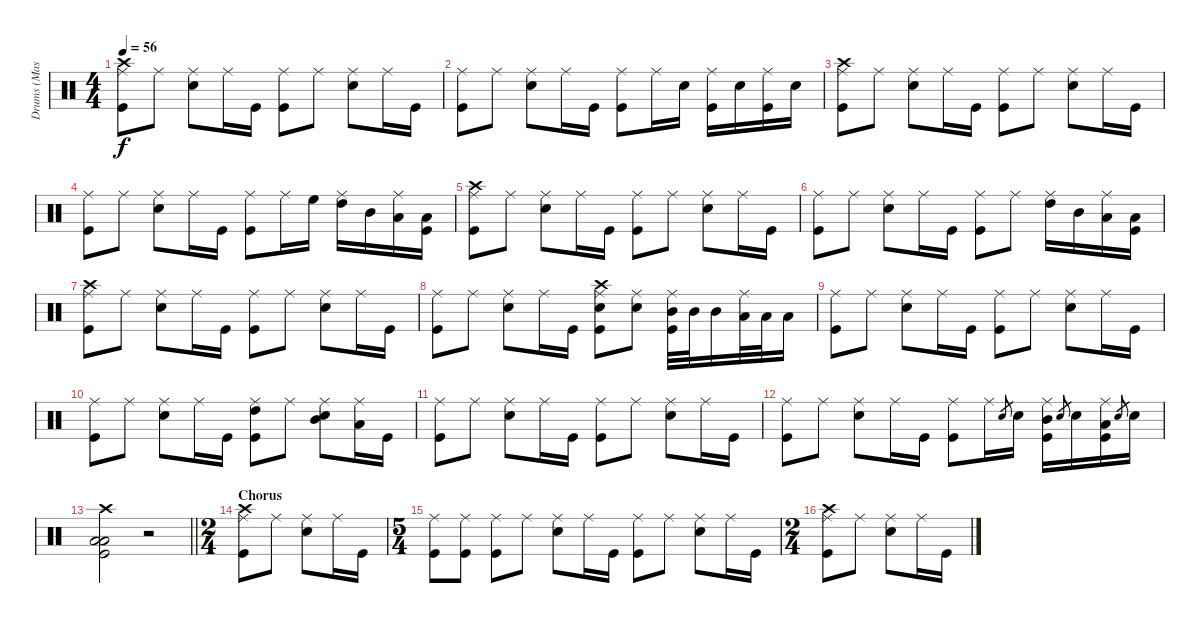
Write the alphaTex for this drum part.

\track ("Drums (Mason)" "Drums (Mas") {instrument percussion}
\staff {score}
\articulation defaults
\ts (4 4)
\tempo 56
\clef neutral
\ks c
("Ride (middle)" "Crash high (hit)" "Kick (hit)").8{dy f} "Ride (middle)".8 ("Ride (middle)" "Snare (hit) 2").8 "Ride (middle)".16 "Kick (hit)".16 ("Ride (middle)" "Kick (hit)").8 "Ride (middle)".8 ("Ride (middle)" "Snare (hit) 2").8 "Ride (middle)".16 "Kick (hit)".16 |
("Ride (middle)" "Kick (hit)").8 "Ride (middle)".8 ("Ride (middle)" "Snare (hit) 2").8 "Ride (middle)".16 "Kick (hit)".16 ("Ride (middle)" "Kick (hit)").8 "Ride (middle)".16 "Snare (hit) 2".16 ("Ride (middle)" "Kick (hit)").16 "Snare (hit) 2".16 ("Ride (middle)" "Kick (hit)").16 "Snare (hit) 2".16 |
("Ride (middle)" "Crash high (hit)" "Kick (hit)").8 "Ride (middle)".8 ("Ride (middle)" "Snare (hit) 2").8 "Ride (middle)".16 "Kick (hit)".16 ("Ride (middle)" "Kick (hit)").8 "Ride (middle)".8 ("Ride (middle)" "Snare (hit) 2").8 "Ride (middle)".16 "Kick (hit)".16 |
("Ride (middle)" "Kick (hit)").8 "Ride (middle)".8 ("Ride (middle)" "Snare (hit) 2").8 "Ride (middle)".16 "Kick (hit)".16 ("Ride (middle)" "Kick (hit)").8 "Ride (middle)".16 "High Floor Tom (hit)".16 ("Ride (middle)" "High Tom (hit)").16 "Mid Tom (hit)".16 ("Ride (middle)" "Low Tom (hit)").16 ("Low Floor Tom (hit)" "Kick (hit)").16 |
("Ride (middle)" "Crash high (hit)" "Kick (hit)").8 "Ride (middle)".8 ("Ride (middle)" "Snare (hit) 2").8 "Ride (middle)".16 "Kick (hit)".16 ("Ride (middle)" "Kick (hit)").8 "Ride (middle)".8 ("Ride (middle)" "Snare (hit) 2").8 "Ride (middle)".16 "Kick (hit)".16 |
("Ride (middle)" "Kick (hit)").8 "Ride (middle)".8 ("Ride (middle)" "Snare (hit) 2").8 "Ride (middle)".16 "Kick (hit)".16 ("Ride (middle)" "Kick (hit)").8 "Ride (middle)".8 ("Ride (middle)" "High Tom (hit)").16 "Mid Tom (hit)".16 ("Ride (middle)" "Low Tom (hit)").16 ("Low Floor Tom (hit)" "Kick (hit)").16 |
("Ride (middle)" "Crash high (hit)" "Kick (hit)").8 "Ride (middle)".8 ("Ride (middle)" "Snare (hit) 2").8 "Ride (middle)".16 "Kick (hit)".16 ("Ride (middle)" "Kick (hit)").8 "Ride (middle)".8 ("Ride (middle)" "Snare (hit) 2").8 "Ride (middle)".16 "Kick (hit)".16 |
("Ride (middle)" "Kick (hit)").8 "Ride (middle)".8 ("Ride (middle)" "Snare (hit) 2").8 "Ride (middle)".16 "Kick (hit)".16 ("Ride (middle)" "Crash high (hit)" "Snare (hit) 2" "Kick (hit)").8 ("Ride (middle)" "Snare (hit) 2").8 ("Ride (middle)" "Mid Tom (hit)" "Kick (hit)").32 "Mid Tom (hit)".32 "Mid Tom (hit)".16 ("Ride (middle)" "Low Tom (hit)").32 "Low Tom (hit)".32 "Low Tom (hit)".16 |
("Ride (middle)" "Kick (hit)").8 "Ride (middle)".8 ("Ride (middle)" "Snare (hit) 2").8 "Ride (middle)".16 "Kick (hit)".16 ("Ride (middle)" "Kick (hit)").8 "Ride (middle)".8 ("Ride (middle)" "Snare (hit) 2").8 "Ride (middle)".16 "Kick (hit)".16 |
("Ride (middle)" "Kick (hit)").8 "Ride (middle)".8 ("Ride (middle)" "Snare (hit) 2").8 "Ride (middle)".16 "Kick (hit)".16 ("Ride (middle)" "High Tom (hit)" "Kick (hit)").8 "Ride (middle)".8 ("Ride (middle)" "Mid Tom (hit)" "Snare (hit) 2").8 ("Ride (middle)" "Low Tom (hit)").16 "Kick (hit)".16 |
("Ride (middle)" "Kick (hit)").8 "Ride (middle)".8 ("Ride (middle)" "Snare (hit) 2").8 "Ride (middle)".16 "Kick (hit)".16 ("Ride (middle)" "Kick (hit)").8 "Ride (middle)".8 ("Ride (middle)" "Snare (hit) 2").8 "Ride (middle)".16 "Kick (hit)".16 |
("Ride (middle)" "Kick (hit)").8 "Ride (middle)".8 ("Ride (middle)" "Snare (hit) 2").8 "Ride (middle)".16 "Kick (hit)".16 ("Ride (middle)" "Kick (hit)").8 "Ride (middle)".16 "Snare (hit) 2".8{gr} "Snare (hit) 2".16 ("Ride (middle)" "Mid Tom (hit)" "Kick (hit)").16 "Snare (hit) 2".8{gr} "Snare (hit) 2".16 ("Ride (middle)" "Low Tom (hit)" "Kick (hit)").16 "Snare (hit) 2".8{gr} "Snare (hit) 2".16 |
\barLineRight lightlight
("Crash high (hit)" "Low Floor Tom (hit)" "Low Floor Tom (hit)" "Kick (hit)").2 r.2 |
\ts (2 4)
\section ("" "Chorus")
("Ride (middle)" "Crash high (hit)" "Kick (hit)").8 "Ride (middle)".8 ("Ride (middle)" "Snare (hit) 2").8 "Ride (middle)".16 "Kick (hit)".16 |
\ts (5 4)
("Ride (middle)" "Kick (hit)").8 ("Ride (middle)" "Kick (hit)").8 ("Ride (middle)" "Kick (hit)").8 "Ride (middle)".8 ("Ride (middle)" "Snare (hit) 2").8 "Ride (middle)".16 "Kick (hit)".16 ("Ride (middle)" "Kick (hit)").8 "Ride (middle)".8 ("Ride (middle)" "Snare (hit) 2").8 "Ride (middle)".16 "Kick (hit)".16 |
\ts (2 4)
("Ride (middle)" "Crash high (hit)" "Kick (hit)").8 "Ride (middle)".8 ("Ride (middle)" "Snare (hit) 2").8 "Ride (middle)".16 "Kick (hit)".16
